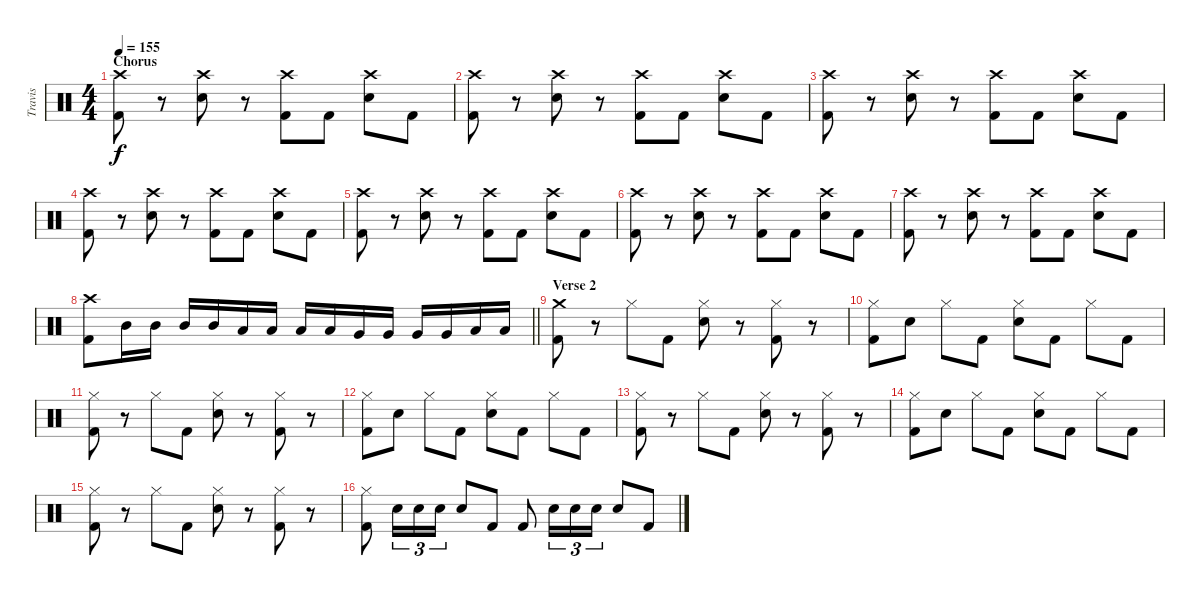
\track ("Travis" "Travis") {instrument percussion}
\staff {score}
\articulation defaults
\ts (4 4)
\section ("" "Chorus")
\tempo 155
\clef neutral
\ks c
("Crash high (hit)" "Kick (hit) 2").8{dy f} r.8 ("Crash high (hit)" "Electric Snare (hit)").8 r.8 ("Crash high (hit)" "Kick (hit) 2").8 "Kick (hit) 2".8 ("Crash high (hit)" "Electric Snare (hit)").8 "Kick (hit) 2".8 |
("Crash high (hit)" "Kick (hit) 2").8 r.8 ("Crash high (hit)" "Electric Snare (hit)").8 r.8 ("Crash high (hit)" "Kick (hit) 2").8 "Kick (hit) 2".8 ("Crash high (hit)" "Electric Snare (hit)").8 "Kick (hit) 2".8 |
("Crash high (hit)" "Kick (hit) 2").8 r.8 ("Crash high (hit)" "Electric Snare (hit)").8 r.8 ("Crash high (hit)" "Kick (hit) 2").8 "Kick (hit) 2".8 ("Crash high (hit)" "Electric Snare (hit)").8 "Kick (hit) 2".8 |
("Crash high (hit)" "Kick (hit) 2").8 r.8 ("Crash high (hit)" "Electric Snare (hit)").8 r.8 ("Crash high (hit)" "Kick (hit) 2").8 "Kick (hit) 2".8 ("Crash high (hit)" "Electric Snare (hit)").8 "Kick (hit) 2".8 |
("Crash high (hit)" "Kick (hit) 2").8 r.8 ("Crash high (hit)" "Electric Snare (hit)").8 r.8 ("Crash high (hit)" "Kick (hit) 2").8 "Kick (hit) 2".8 ("Crash high (hit)" "Electric Snare (hit)").8 "Kick (hit) 2".8 |
("Crash high (hit)" "Kick (hit) 2").8 r.8 ("Crash high (hit)" "Electric Snare (hit)").8 r.8 ("Crash high (hit)" "Kick (hit) 2").8 "Kick (hit) 2".8 ("Crash high (hit)" "Electric Snare (hit)").8 "Kick (hit) 2".8 |
("Crash high (hit)" "Kick (hit) 2").8 r.8 ("Crash high (hit)" "Electric Snare (hit)").8 r.8 ("Crash high (hit)" "Kick (hit) 2").8 "Kick (hit) 2".8 ("Crash high (hit)" "Electric Snare (hit)").8 "Kick (hit) 2".8 |
\barLineRight lightlight
("Crash high (hit)" "Kick (hit) 2").8 "Mid Tom (hit)".16 "Mid Tom (hit)".16 "Mid Tom (hit)".16 "Mid Tom (hit)".16 "Low Tom (hit)".16 "Low Tom (hit)".16 "Low Tom (hit)".16 "Low Tom (hit)".16 "Very Low Tom (hit)".16 "Very Low Tom (hit)".16 "Very Low Tom (hit)".16 "Very Low Tom (hit)".16 "Low Floor Tom (hit)".16 "Low Floor Tom (hit)".16 |
\section ("" "Verse 2")
("Crash medium (hit)" "Kick (hit) 2").8 r.8 "Hi-Hat (closed)".8 "Kick (hit) 2".8 ("Hi-Hat (closed)" "Electric Snare (hit)").8 r.8 ("Hi-Hat (closed)" "Kick (hit) 2").8 r.8 |
("Hi-Hat (closed)" "Kick (hit) 2").8 "Electric Snare (hit)".8 "Hi-Hat (closed)".8 "Kick (hit) 2".8 ("Hi-Hat (closed)" "Electric Snare (hit)").8 "Kick (hit) 2".8 "Hi-Hat (closed)".8 "Kick (hit) 2".8 |
("Hi-Hat (closed)" "Kick (hit) 2").8 r.8 "Hi-Hat (closed)".8 "Kick (hit) 2".8 ("Hi-Hat (closed)" "Electric Snare (hit)").8 r.8 ("Hi-Hat (closed)" "Kick (hit) 2").8 r.8 |
("Hi-Hat (closed)" "Kick (hit) 2").8 "Electric Snare (hit)".8 "Hi-Hat (closed)".8 "Kick (hit) 2".8 ("Hi-Hat (closed)" "Electric Snare (hit)").8 "Kick (hit) 2".8 "Hi-Hat (closed)".8 "Kick (hit) 2".8 |
("Hi-Hat (closed)" "Kick (hit) 2").8 r.8 "Hi-Hat (closed)".8 "Kick (hit) 2".8 ("Hi-Hat (closed)" "Electric Snare (hit)").8 r.8 ("Hi-Hat (closed)" "Kick (hit) 2").8 r.8 |
("Hi-Hat (closed)" "Kick (hit) 2").8 "Electric Snare (hit)".8 "Hi-Hat (closed)".8 "Kick (hit) 2".8 ("Hi-Hat (closed)" "Electric Snare (hit)").8 "Kick (hit) 2".8 "Hi-Hat (closed)".8 "Kick (hit) 2".8 |
("Hi-Hat (closed)" "Kick (hit) 2").8 r.8 "Hi-Hat (closed)".8 "Kick (hit) 2".8 ("Hi-Hat (closed)" "Electric Snare (hit)").8 r.8 ("Hi-Hat (closed)" "Kick (hit) 2").8 r.8 |
("Hi-Hat (closed)" "Kick (hit) 2").8 "Electric Snare (hit)".16{tu (3 2)} "Electric Snare (hit)".16{tu (3 2)} "Electric Snare (hit)".16{tu (3 2)} "Electric Snare (hit)".8 "Kick (hit) 2".8 "Kick (hit) 2".8 "Electric Snare (hit)".16{tu (3 2)} "Electric Snare (hit)".16{tu (3 2)} "Electric Snare (hit)".16{tu (3 2)} "Electric Snare (hit)".8 "Kick (hit) 2".8
